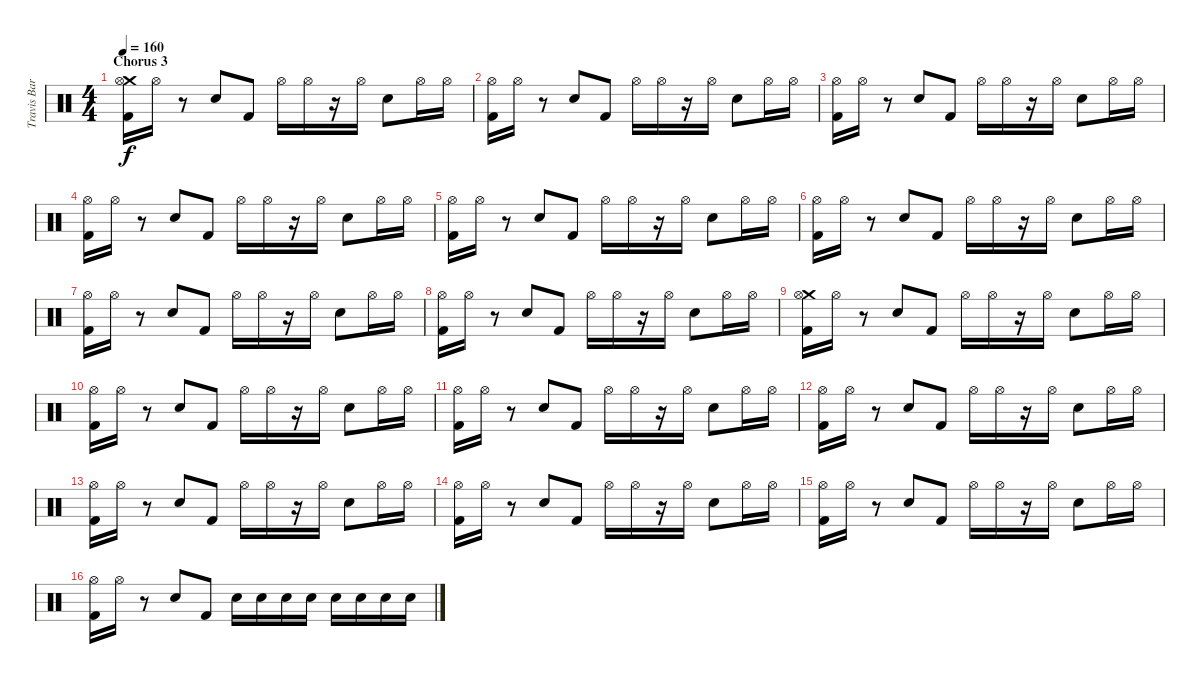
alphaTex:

\track ("Travis Barker Drums" "Travis Bar") {instrument percussion}
\staff {score}
\articulation defaults
\ts (4 4)
\section ("" "Chorus 3")
\tempo 160
\clef neutral
\ks c
("Crash medium (hit)" "Hi-Hat (open)" "Kick (hit) 2").16{dy f} "Hi-Hat (open)".16 r.8 "Electric Snare (hit)".8 "Kick (hit) 2".8 "Hi-Hat (open)".16 "Hi-Hat (open)".16 r.16 "Hi-Hat (open)".16 "Electric Snare (hit)".8 "Hi-Hat (open)".16 "Hi-Hat (open)".16 |
("Hi-Hat (open)" "Kick (hit) 2").16 "Hi-Hat (open)".16 r.8 "Electric Snare (hit)".8 "Kick (hit) 2".8 "Hi-Hat (open)".16 "Hi-Hat (open)".16 r.16 "Hi-Hat (open)".16 "Electric Snare (hit)".8 "Hi-Hat (open)".16 "Hi-Hat (open)".16 |
("Hi-Hat (open)" "Kick (hit) 2").16 "Hi-Hat (open)".16 r.8 "Electric Snare (hit)".8 "Kick (hit) 2".8 "Hi-Hat (open)".16 "Hi-Hat (open)".16 r.16 "Hi-Hat (open)".16 "Electric Snare (hit)".8 "Hi-Hat (open)".16 "Hi-Hat (open)".16 |
("Hi-Hat (open)" "Kick (hit) 2").16 "Hi-Hat (open)".16 r.8 "Electric Snare (hit)".8 "Kick (hit) 2".8 "Hi-Hat (open)".16 "Hi-Hat (open)".16 r.16 "Hi-Hat (open)".16 "Electric Snare (hit)".8 "Hi-Hat (open)".16 "Hi-Hat (open)".16 |
("Hi-Hat (open)" "Kick (hit) 2").16 "Hi-Hat (open)".16 r.8 "Electric Snare (hit)".8 "Kick (hit) 2".8 "Hi-Hat (open)".16 "Hi-Hat (open)".16 r.16 "Hi-Hat (open)".16 "Electric Snare (hit)".8 "Hi-Hat (open)".16 "Hi-Hat (open)".16 |
("Hi-Hat (open)" "Kick (hit) 2").16 "Hi-Hat (open)".16 r.8 "Electric Snare (hit)".8 "Kick (hit) 2".8 "Hi-Hat (open)".16 "Hi-Hat (open)".16 r.16 "Hi-Hat (open)".16 "Electric Snare (hit)".8 "Hi-Hat (open)".16 "Hi-Hat (open)".16 |
("Hi-Hat (open)" "Kick (hit) 2").16 "Hi-Hat (open)".16 r.8 "Electric Snare (hit)".8 "Kick (hit) 2".8 "Hi-Hat (open)".16 "Hi-Hat (open)".16 r.16 "Hi-Hat (open)".16 "Electric Snare (hit)".8 "Hi-Hat (open)".16 "Hi-Hat (open)".16 |
("Hi-Hat (open)" "Kick (hit) 2").16 "Hi-Hat (open)".16 r.8 "Electric Snare (hit)".8 "Kick (hit) 2".8 "Hi-Hat (open)".16 "Hi-Hat (open)".16 r.16 "Hi-Hat (open)".16 "Electric Snare (hit)".8 "Hi-Hat (open)".16 "Hi-Hat (open)".16 |
("Crash medium (hit)" "Hi-Hat (open)" "Kick (hit) 2").16 "Hi-Hat (open)".16 r.8 "Electric Snare (hit)".8 "Kick (hit) 2".8 "Hi-Hat (open)".16 "Hi-Hat (open)".16 r.16 "Hi-Hat (open)".16 "Electric Snare (hit)".8 "Hi-Hat (open)".16 "Hi-Hat (open)".16 |
("Hi-Hat (open)" "Kick (hit) 2").16 "Hi-Hat (open)".16 r.8 "Electric Snare (hit)".8 "Kick (hit) 2".8 "Hi-Hat (open)".16 "Hi-Hat (open)".16 r.16 "Hi-Hat (open)".16 "Electric Snare (hit)".8 "Hi-Hat (open)".16 "Hi-Hat (open)".16 |
("Hi-Hat (open)" "Kick (hit) 2").16 "Hi-Hat (open)".16 r.8 "Electric Snare (hit)".8 "Kick (hit) 2".8 "Hi-Hat (open)".16 "Hi-Hat (open)".16 r.16 "Hi-Hat (open)".16 "Electric Snare (hit)".8 "Hi-Hat (open)".16 "Hi-Hat (open)".16 |
("Hi-Hat (open)" "Kick (hit) 2").16 "Hi-Hat (open)".16 r.8 "Electric Snare (hit)".8 "Kick (hit) 2".8 "Hi-Hat (open)".16 "Hi-Hat (open)".16 r.16 "Hi-Hat (open)".16 "Electric Snare (hit)".8 "Hi-Hat (open)".16 "Hi-Hat (open)".16 |
("Hi-Hat (open)" "Kick (hit) 2").16 "Hi-Hat (open)".16 r.8 "Electric Snare (hit)".8 "Kick (hit) 2".8 "Hi-Hat (open)".16 "Hi-Hat (open)".16 r.16 "Hi-Hat (open)".16 "Electric Snare (hit)".8 "Hi-Hat (open)".16 "Hi-Hat (open)".16 |
("Hi-Hat (open)" "Kick (hit) 2").16 "Hi-Hat (open)".16 r.8 "Electric Snare (hit)".8 "Kick (hit) 2".8 "Hi-Hat (open)".16 "Hi-Hat (open)".16 r.16 "Hi-Hat (open)".16 "Electric Snare (hit)".8 "Hi-Hat (open)".16 "Hi-Hat (open)".16 |
("Hi-Hat (open)" "Kick (hit) 2").16 "Hi-Hat (open)".16 r.8 "Electric Snare (hit)".8 "Kick (hit) 2".8 "Hi-Hat (open)".16 "Hi-Hat (open)".16 r.16 "Hi-Hat (open)".16 "Electric Snare (hit)".8 "Hi-Hat (open)".16 "Hi-Hat (open)".16 |
("Hi-Hat (open)" "Kick (hit) 2").16 "Hi-Hat (open)".16 r.8 "Electric Snare (hit)".8 "Kick (hit) 2".8 "Electric Snare (hit)".16 "Electric Snare (hit)".16 "Electric Snare (hit)".16 "Electric Snare (hit)".16 "Electric Snare (hit)".16 "Electric Snare (hit)".16 "Electric Snare (hit)".16 "Electric Snare (hit)".16
